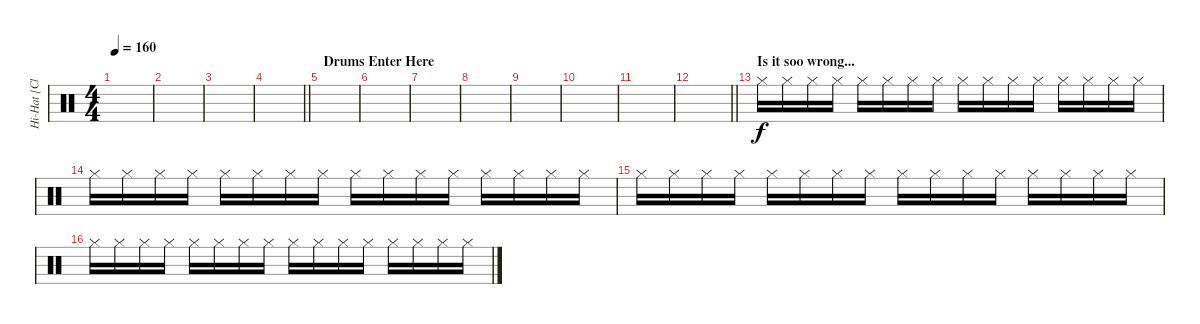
\track ("Hi-Hat [Closed]" "Hi-Hat [Cl") {instrument percussion}
\staff {score}
\articulation defaults
\ts (4 4)
\tempo 160
\clef neutral
\ks c
|
|
|
\barLineRight lightlight
|
\section ("" "Drums Enter Here")
|
|
|
|
|
|
|
\barLineRight lightlight
|
\section ("" "Is it soo wrong...")
"Hi-Hat (closed)".16 "Hi-Hat (closed)".16 "Hi-Hat (closed)".16 "Hi-Hat (closed)".16 "Hi-Hat (closed)".16 "Hi-Hat (closed)".16 "Hi-Hat (closed)".16 "Hi-Hat (closed)".16 "Hi-Hat (closed)".16 "Hi-Hat (closed)".16 "Hi-Hat (closed)".16 "Hi-Hat (closed)".16 "Hi-Hat (closed)".16 "Hi-Hat (closed)".16 "Hi-Hat (closed)".16 "Hi-Hat (closed)".16 |
"Hi-Hat (closed)".16 "Hi-Hat (closed)".16 "Hi-Hat (closed)".16 "Hi-Hat (closed)".16 "Hi-Hat (closed)".16 "Hi-Hat (closed)".16 "Hi-Hat (closed)".16 "Hi-Hat (closed)".16 "Hi-Hat (closed)".16 "Hi-Hat (closed)".16 "Hi-Hat (closed)".16 "Hi-Hat (closed)".16 "Hi-Hat (closed)".16 "Hi-Hat (closed)".16 "Hi-Hat (closed)".16 "Hi-Hat (closed)".16 |
"Hi-Hat (closed)".16 "Hi-Hat (closed)".16 "Hi-Hat (closed)".16 "Hi-Hat (closed)".16 "Hi-Hat (closed)".16 "Hi-Hat (closed)".16 "Hi-Hat (closed)".16 "Hi-Hat (closed)".16 "Hi-Hat (closed)".16 "Hi-Hat (closed)".16 "Hi-Hat (closed)".16 "Hi-Hat (closed)".16 "Hi-Hat (closed)".16 "Hi-Hat (closed)".16 "Hi-Hat (closed)".16 "Hi-Hat (closed)".16 |
"Hi-Hat (closed)".16 "Hi-Hat (closed)".16 "Hi-Hat (closed)".16 "Hi-Hat (closed)".16 "Hi-Hat (closed)".16 "Hi-Hat (closed)".16 "Hi-Hat (closed)".16 "Hi-Hat (closed)".16 "Hi-Hat (closed)".16 "Hi-Hat (closed)".16 "Hi-Hat (closed)".16 "Hi-Hat (closed)".16 "Hi-Hat (closed)".16 "Hi-Hat (closed)".16 "Hi-Hat (closed)".16 "Hi-Hat (closed)".16
